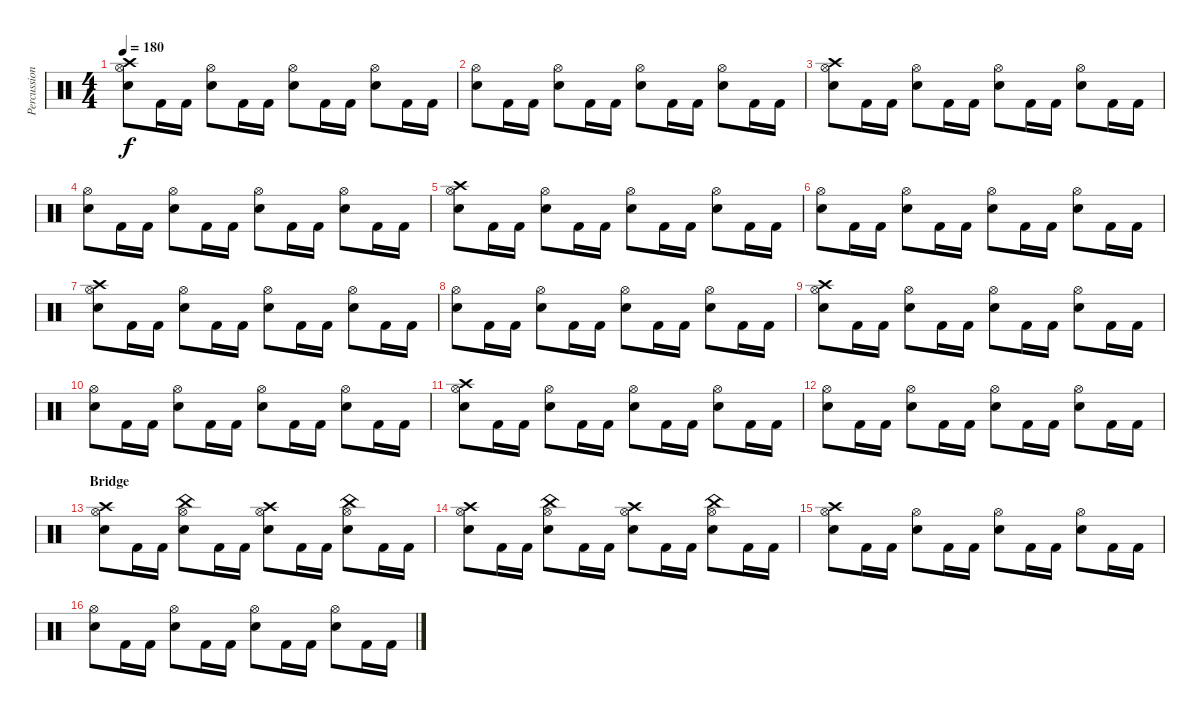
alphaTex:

\track ("Percussions" "Percussion") {instrument percussion}
\staff {score}
\articulation defaults
\ts (4 4)
\tempo 180
\clef neutral
\ks c
("Crash high (hit)" "Hi-Hat (open)" "Electric Snare (hit)").8{dy f} "Kick (hit) 2".16 "Kick (hit) 2".16 ("Hi-Hat (open)" "Electric Snare (hit)").8 "Kick (hit) 2".16 "Kick (hit) 2".16 ("Hi-Hat (open)" "Electric Snare (hit)").8 "Kick (hit) 2".16 "Kick (hit) 2".16 ("Hi-Hat (open)" "Electric Snare (hit)").8 "Kick (hit) 2".16 "Kick (hit) 2".16 |
("Hi-Hat (open)" "Electric Snare (hit)").8 "Kick (hit) 2".16 "Kick (hit) 2".16 ("Hi-Hat (open)" "Electric Snare (hit)").8 "Kick (hit) 2".16 "Kick (hit) 2".16 ("Hi-Hat (open)" "Electric Snare (hit)").8 "Kick (hit) 2".16 "Kick (hit) 2".16 ("Hi-Hat (open)" "Electric Snare (hit)").8 "Kick (hit) 2".16 "Kick (hit) 2".16 |
("Crash high (hit)" "Hi-Hat (open)" "Electric Snare (hit)").8 "Kick (hit) 2".16 "Kick (hit) 2".16 ("Hi-Hat (open)" "Electric Snare (hit)").8 "Kick (hit) 2".16 "Kick (hit) 2".16 ("Hi-Hat (open)" "Electric Snare (hit)").8 "Kick (hit) 2".16 "Kick (hit) 2".16 ("Hi-Hat (open)" "Electric Snare (hit)").8 "Kick (hit) 2".16 "Kick (hit) 2".16 |
("Hi-Hat (open)" "Electric Snare (hit)").8 "Kick (hit) 2".16 "Kick (hit) 2".16 ("Hi-Hat (open)" "Electric Snare (hit)").8 "Kick (hit) 2".16 "Kick (hit) 2".16 ("Hi-Hat (open)" "Electric Snare (hit)").8 "Kick (hit) 2".16 "Kick (hit) 2".16 ("Hi-Hat (open)" "Electric Snare (hit)").8 "Kick (hit) 2".16 "Kick (hit) 2".16 |
("Crash high (hit)" "Hi-Hat (open)" "Electric Snare (hit)").8 "Kick (hit) 2".16 "Kick (hit) 2".16 ("Hi-Hat (open)" "Electric Snare (hit)").8 "Kick (hit) 2".16 "Kick (hit) 2".16 ("Hi-Hat (open)" "Electric Snare (hit)").8 "Kick (hit) 2".16 "Kick (hit) 2".16 ("Hi-Hat (open)" "Electric Snare (hit)").8 "Kick (hit) 2".16 "Kick (hit) 2".16 |
("Hi-Hat (open)" "Electric Snare (hit)").8 "Kick (hit) 2".16 "Kick (hit) 2".16 ("Hi-Hat (open)" "Electric Snare (hit)").8 "Kick (hit) 2".16 "Kick (hit) 2".16 ("Hi-Hat (open)" "Electric Snare (hit)").8 "Kick (hit) 2".16 "Kick (hit) 2".16 ("Hi-Hat (open)" "Electric Snare (hit)").8 "Kick (hit) 2".16 "Kick (hit) 2".16 |
("Crash high (hit)" "Hi-Hat (open)" "Electric Snare (hit)").8 "Kick (hit) 2".16 "Kick (hit) 2".16 ("Hi-Hat (open)" "Electric Snare (hit)").8 "Kick (hit) 2".16 "Kick (hit) 2".16 ("Hi-Hat (open)" "Electric Snare (hit)").8 "Kick (hit) 2".16 "Kick (hit) 2".16 ("Hi-Hat (open)" "Electric Snare (hit)").8 "Kick (hit) 2".16 "Kick (hit) 2".16 |
("Hi-Hat (open)" "Electric Snare (hit)").8 "Kick (hit) 2".16 "Kick (hit) 2".16 ("Hi-Hat (open)" "Electric Snare (hit)").8 "Kick (hit) 2".16 "Kick (hit) 2".16 ("Hi-Hat (open)" "Electric Snare (hit)").8 "Kick (hit) 2".16 "Kick (hit) 2".16 ("Hi-Hat (open)" "Electric Snare (hit)").8 "Kick (hit) 2".16 "Kick (hit) 2".16 |
("Crash high (hit)" "Hi-Hat (open)" "Electric Snare (hit)").8 "Kick (hit) 2".16 "Kick (hit) 2".16 ("Hi-Hat (open)" "Electric Snare (hit)").8 "Kick (hit) 2".16 "Kick (hit) 2".16 ("Hi-Hat (open)" "Electric Snare (hit)").8 "Kick (hit) 2".16 "Kick (hit) 2".16 ("Hi-Hat (open)" "Electric Snare (hit)").8 "Kick (hit) 2".16 "Kick (hit) 2".16 |
("Hi-Hat (open)" "Electric Snare (hit)").8 "Kick (hit) 2".16 "Kick (hit) 2".16 ("Hi-Hat (open)" "Electric Snare (hit)").8 "Kick (hit) 2".16 "Kick (hit) 2".16 ("Hi-Hat (open)" "Electric Snare (hit)").8 "Kick (hit) 2".16 "Kick (hit) 2".16 ("Hi-Hat (open)" "Electric Snare (hit)").8 "Kick (hit) 2".16 "Kick (hit) 2".16 |
("Crash high (hit)" "Hi-Hat (open)" "Electric Snare (hit)").8 "Kick (hit) 2".16 "Kick (hit) 2".16 ("Hi-Hat (open)" "Electric Snare (hit)").8 "Kick (hit) 2".16 "Kick (hit) 2".16 ("Hi-Hat (open)" "Electric Snare (hit)").8 "Kick (hit) 2".16 "Kick (hit) 2".16 ("Hi-Hat (open)" "Electric Snare (hit)").8 "Kick (hit) 2".16 "Kick (hit) 2".16 |
("Hi-Hat (open)" "Electric Snare (hit)").8 "Kick (hit) 2".16 "Kick (hit) 2".16 ("Hi-Hat (open)" "Electric Snare (hit)").8 "Kick (hit) 2".16 "Kick (hit) 2".16 ("Hi-Hat (open)" "Electric Snare (hit)").8 "Kick (hit) 2".16 "Kick (hit) 2".16 ("Hi-Hat (open)" "Electric Snare (hit)").8 "Kick (hit) 2".16 "Kick (hit) 2".16 |
\section ("" "Bridge")
("Crash high (hit)" "Hi-Hat (open)" "Electric Snare (hit)").8 "Kick (hit) 2".16 "Kick (hit) 2".16 ("China (hit)" "Hi-Hat (open)" "Electric Snare (hit)").8 "Kick (hit) 2".16 "Kick (hit) 2".16 ("Crash high (hit)" "Hi-Hat (open)" "Electric Snare (hit)").8 "Kick (hit) 2".16 "Kick (hit) 2".16 ("China (hit)" "Hi-Hat (open)" "Electric Snare (hit)").8 "Kick (hit) 2".16 "Kick (hit) 2".16 |
("Crash high (hit)" "Hi-Hat (open)" "Electric Snare (hit)").8 "Kick (hit) 2".16 "Kick (hit) 2".16 ("China (hit)" "Hi-Hat (open)" "Electric Snare (hit)").8 "Kick (hit) 2".16 "Kick (hit) 2".16 ("Crash high (hit)" "Hi-Hat (open)" "Electric Snare (hit)").8 "Kick (hit) 2".16 "Kick (hit) 2".16 ("China (hit)" "Hi-Hat (open)" "Electric Snare (hit)").8 "Kick (hit) 2".16 "Kick (hit) 2".16 |
("Crash high (hit)" "Hi-Hat (open)" "Electric Snare (hit)").8 "Kick (hit) 2".16 "Kick (hit) 2".16 ("Hi-Hat (open)" "Electric Snare (hit)").8 "Kick (hit) 2".16 "Kick (hit) 2".16 ("Hi-Hat (open)" "Electric Snare (hit)").8 "Kick (hit) 2".16 "Kick (hit) 2".16 ("Hi-Hat (open)" "Electric Snare (hit)").8 "Kick (hit) 2".16 "Kick (hit) 2".16 |
("Hi-Hat (open)" "Electric Snare (hit)").8 "Kick (hit) 2".16 "Kick (hit) 2".16 ("Hi-Hat (open)" "Electric Snare (hit)").8 "Kick (hit) 2".16 "Kick (hit) 2".16 ("Hi-Hat (open)" "Electric Snare (hit)").8 "Kick (hit) 2".16 "Kick (hit) 2".16 ("Hi-Hat (open)" "Electric Snare (hit)").8 "Kick (hit) 2".16 "Kick (hit) 2".16
